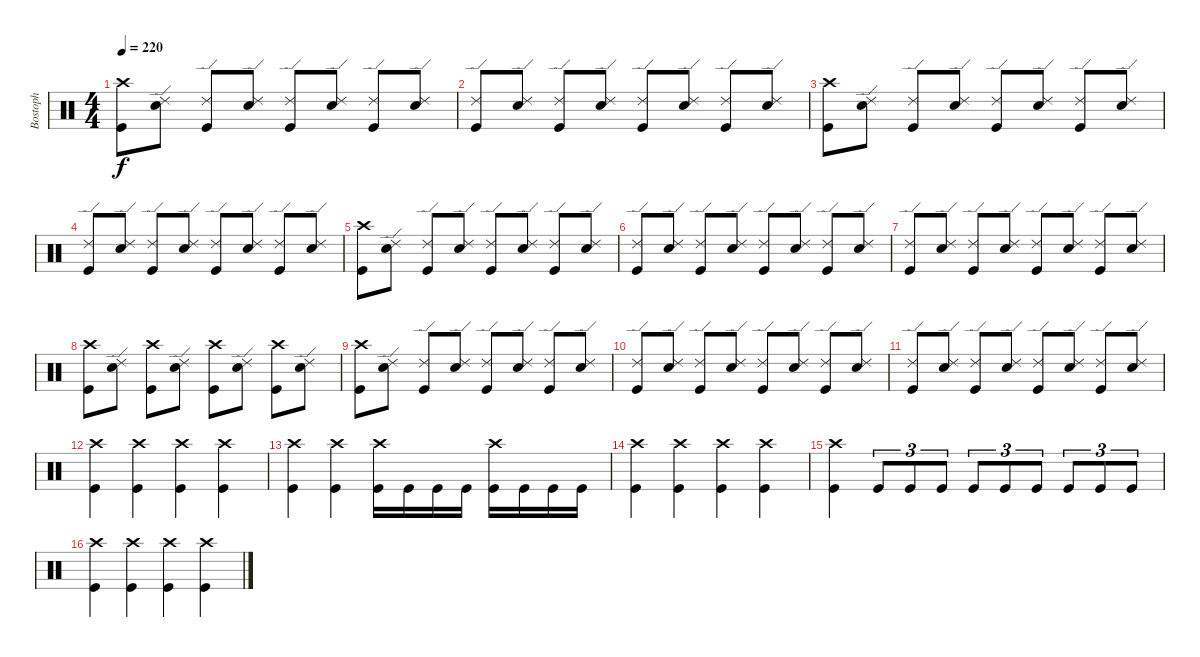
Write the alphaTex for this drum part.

\track ("Bostoph" "Bostoph") {instrument percussion}
\staff {score}
\articulation defaults
\ts (4 4)
\tempo 220
\clef neutral
\ks c
("Crash high (hit)" "Kick (hit)").8{dy f} ("Ride (edge) 2" "Snare (hit) 2").8 ("Ride (edge) 2" "Kick (hit)").8 ("Ride (edge) 2" "Snare (hit) 2").8 ("Ride (edge) 2" "Kick (hit)").8 ("Ride (edge) 2" "Snare (hit) 2").8 ("Ride (edge) 2" "Kick (hit)").8 ("Ride (edge) 2" "Snare (hit) 2").8 |
("Ride (edge) 2" "Kick (hit)").8 ("Ride (edge) 2" "Snare (hit) 2").8 ("Ride (edge) 2" "Kick (hit)").8 ("Ride (edge) 2" "Snare (hit) 2").8 ("Ride (edge) 2" "Kick (hit)").8 ("Ride (edge) 2" "Snare (hit) 2").8 ("Ride (edge) 2" "Kick (hit)").8 ("Ride (edge) 2" "Snare (hit) 2").8 |
("Crash high (hit)" "Kick (hit)").8 ("Ride (edge) 2" "Snare (hit) 2").8 ("Ride (edge) 2" "Kick (hit)").8 ("Ride (edge) 2" "Snare (hit) 2").8 ("Ride (edge) 2" "Kick (hit)").8 ("Ride (edge) 2" "Snare (hit) 2").8 ("Ride (edge) 2" "Kick (hit)").8 ("Ride (edge) 2" "Snare (hit) 2").8 |
("Ride (edge) 2" "Kick (hit)").8 ("Ride (edge) 2" "Snare (hit) 2").8 ("Ride (edge) 2" "Kick (hit)").8 ("Ride (edge) 2" "Snare (hit) 2").8 ("Ride (edge) 2" "Kick (hit)").8 ("Ride (edge) 2" "Snare (hit) 2").8 ("Ride (edge) 2" "Kick (hit)").8 ("Ride (edge) 2" "Snare (hit) 2").8 |
("Crash high (hit)" "Kick (hit)").8 ("Ride (edge) 2" "Snare (hit) 2").8 ("Ride (edge) 2" "Kick (hit)").8 ("Ride (edge) 2" "Snare (hit) 2").8 ("Ride (edge) 2" "Kick (hit)").8 ("Ride (edge) 2" "Snare (hit) 2").8 ("Ride (edge) 2" "Kick (hit)").8 ("Ride (edge) 2" "Snare (hit) 2").8 |
("Ride (edge) 2" "Kick (hit)").8 ("Ride (edge) 2" "Snare (hit) 2").8 ("Ride (edge) 2" "Kick (hit)").8 ("Ride (edge) 2" "Snare (hit) 2").8 ("Ride (edge) 2" "Kick (hit)").8 ("Ride (edge) 2" "Snare (hit) 2").8 ("Ride (edge) 2" "Kick (hit)").8 ("Ride (edge) 2" "Snare (hit) 2").8 |
("Ride (edge) 2" "Kick (hit)").8 ("Ride (edge) 2" "Snare (hit) 2").8 ("Ride (edge) 2" "Kick (hit)").8 ("Ride (edge) 2" "Snare (hit) 2").8 ("Ride (edge) 2" "Kick (hit)").8 ("Ride (edge) 2" "Snare (hit) 2").8 ("Ride (edge) 2" "Kick (hit)").8 ("Ride (edge) 2" "Snare (hit) 2").8 |
("Crash high (hit)" "Kick (hit)").8 ("Ride (edge) 2" "Snare (hit) 2").8 ("Crash high (hit)" "Kick (hit)").8 ("Ride (edge) 2" "Snare (hit) 2").8 ("Crash high (hit)" "Kick (hit)").8 ("Ride (edge) 2" "Snare (hit) 2").8 ("Crash high (hit)" "Kick (hit)").8 ("Ride (edge) 2" "Snare (hit) 2").8 |
("Crash high (hit)" "Kick (hit)").8 ("Ride (edge) 2" "Snare (hit) 2").8 ("Ride (edge) 2" "Kick (hit)").8 ("Ride (edge) 2" "Snare (hit) 2").8 ("Ride (edge) 2" "Kick (hit)").8 ("Ride (edge) 2" "Snare (hit) 2").8 ("Ride (edge) 2" "Kick (hit)").8 ("Ride (edge) 2" "Snare (hit) 2").8 |
("Ride (edge) 2" "Kick (hit)").8 ("Ride (edge) 2" "Snare (hit) 2").8 ("Ride (edge) 2" "Kick (hit)").8 ("Ride (edge) 2" "Snare (hit) 2").8 ("Ride (edge) 2" "Kick (hit)").8 ("Ride (edge) 2" "Snare (hit) 2").8 ("Ride (edge) 2" "Kick (hit)").8 ("Ride (edge) 2" "Snare (hit) 2").8 |
("Ride (edge) 2" "Kick (hit)").8 ("Ride (edge) 2" "Snare (hit) 2").8 ("Ride (edge) 2" "Kick (hit)").8 ("Ride (edge) 2" "Snare (hit) 2").8 ("Ride (edge) 2" "Kick (hit)").8 ("Ride (edge) 2" "Snare (hit) 2").8 ("Ride (edge) 2" "Kick (hit)").8 ("Ride (edge) 2" "Snare (hit) 2").8 |
("Crash high (hit)" "Kick (hit)").4 ("Crash high (hit)" "Kick (hit)").4 ("Crash high (hit)" "Kick (hit)").4 ("Crash high (hit)" "Kick (hit)").4 |
("Crash high (hit)" "Kick (hit)").4 ("Crash high (hit)" "Kick (hit)").4 ("Crash high (hit)" "Kick (hit)").16 "Kick (hit)".16 "Kick (hit)".16 "Kick (hit)".16 ("Crash high (hit)" "Kick (hit)").16 "Kick (hit)".16 "Kick (hit)".16 "Kick (hit)".16 |
("Crash high (hit)" "Kick (hit)").4 ("Crash high (hit)" "Kick (hit)").4 ("Crash high (hit)" "Kick (hit)").4 ("Crash high (hit)" "Kick (hit)").4 |
("Crash high (hit)" "Kick (hit)").4 "Kick (hit)".8{tu (3 2)} "Kick (hit)".8{tu (3 2)} "Kick (hit)".8{tu (3 2)} "Kick (hit)".8{tu (3 2)} "Kick (hit)".8{tu (3 2)} "Kick (hit)".8{tu (3 2)} "Kick (hit)".8{tu (3 2)} "Kick (hit)".8{tu (3 2)} "Kick (hit)".8{tu (3 2)} |
("Crash high (hit)" "Kick (hit)").4 ("Crash high (hit)" "Kick (hit)").4 ("Crash high (hit)" "Kick (hit)").4 ("Crash high (hit)" "Kick (hit)").4
